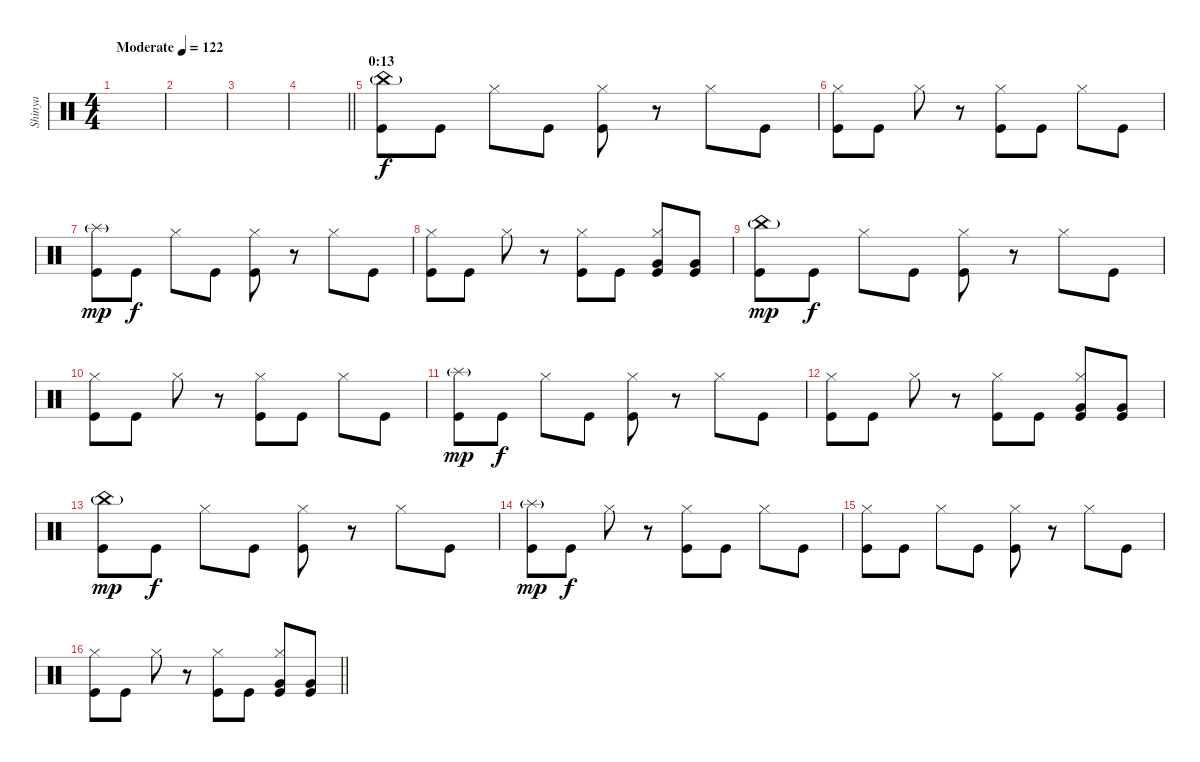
\track ("Shinya" "Shinya") {instrument percussion}
\staff {score}
\articulation defaults
\ts (4 4)
\tempo (122 "Moderate")
\clef neutral
\ks c
|
|
|
\barLineRight lightlight
|
\section ("" "0:13")
("China (hit)"{g} "Kick (hit)").8 "Kick (hit)".8{dy f} "Hi-Hat (closed)".8 "Kick (hit)".8 ("Hi-Hat (closed)" "Kick (hit)").8 r.8 "Hi-Hat (closed)".8 "Kick (hit)".8 |
("Hi-Hat (closed)" "Kick (hit)").8 "Kick (hit)".8 "Hi-Hat (closed)".8 r.8 ("Hi-Hat (closed)" "Kick (hit)").8 "Kick (hit)".8 "Hi-Hat (closed)".8 "Kick (hit)".8 |
("Splash (hit)"{g} "Kick (hit)").8{dy mp} "Kick (hit)".8{dy f} "Hi-Hat (closed)".8 "Kick (hit)".8 ("Hi-Hat (closed)" "Kick (hit)").8 r.8 "Hi-Hat (closed)".8 "Kick (hit)".8 |
("Hi-Hat (closed)" "Kick (hit)").8 "Kick (hit)".8 "Hi-Hat (closed)".8 r.8 ("Hi-Hat (closed)" "Kick (hit)").8 "Kick (hit)".8 ("Hi-Hat (closed)" "Very Low Tom (hit)" "Kick (hit)").8 ("Very Low Tom (hit)" "Kick (hit)").8 |
("China (hit)"{g} "Kick (hit)").8{dy mp} "Kick (hit)".8{dy f} "Hi-Hat (closed)".8 "Kick (hit)".8 ("Hi-Hat (closed)" "Kick (hit)").8 r.8 "Hi-Hat (closed)".8 "Kick (hit)".8 |
("Hi-Hat (closed)" "Kick (hit)").8 "Kick (hit)".8 "Hi-Hat (closed)".8 r.8 ("Hi-Hat (closed)" "Kick (hit)").8 "Kick (hit)".8 "Hi-Hat (closed)".8 "Kick (hit)".8 |
("Splash (hit)"{g} "Kick (hit)").8{dy mp} "Kick (hit)".8{dy f} "Hi-Hat (closed)".8 "Kick (hit)".8 ("Hi-Hat (closed)" "Kick (hit)").8 r.8 "Hi-Hat (closed)".8 "Kick (hit)".8 |
("Hi-Hat (closed)" "Kick (hit)").8 "Kick (hit)".8 "Hi-Hat (closed)".8 r.8 ("Hi-Hat (closed)" "Kick (hit)").8 "Kick (hit)".8 ("Hi-Hat (closed)" "Very Low Tom (hit)" "Kick (hit)").8 ("Very Low Tom (hit)" "Kick (hit)").8 |
("China (hit)"{g} "Kick (hit)").8{dy mp} "Kick (hit)".8{dy f} "Hi-Hat (closed)".8 "Kick (hit)".8 ("Hi-Hat (closed)" "Kick (hit)").8 r.8 "Hi-Hat (closed)".8 "Kick (hit)".8 |
("Splash (hit)"{g} "Kick (hit)").8{dy mp} "Kick (hit)".8{dy f} "Hi-Hat (closed)".8 r.8 ("Hi-Hat (closed)" "Kick (hit)").8 "Kick (hit)".8 "Hi-Hat (closed)".8 "Kick (hit)".8 |
("Hi-Hat (closed)" "Kick (hit)").8 "Kick (hit)".8 "Hi-Hat (closed)".8 "Kick (hit)".8 ("Hi-Hat (closed)" "Kick (hit)").8 r.8 "Hi-Hat (closed)".8 "Kick (hit)".8 |
\barLineRight lightlight
("Hi-Hat (closed)" "Kick (hit)").8 "Kick (hit)".8 "Hi-Hat (closed)".8 r.8 ("Hi-Hat (closed)" "Kick (hit)").8 "Kick (hit)".8 ("Hi-Hat (closed)" "Very Low Tom (hit)" "Kick (hit)").8 ("Very Low Tom (hit)" "Kick (hit)").8
